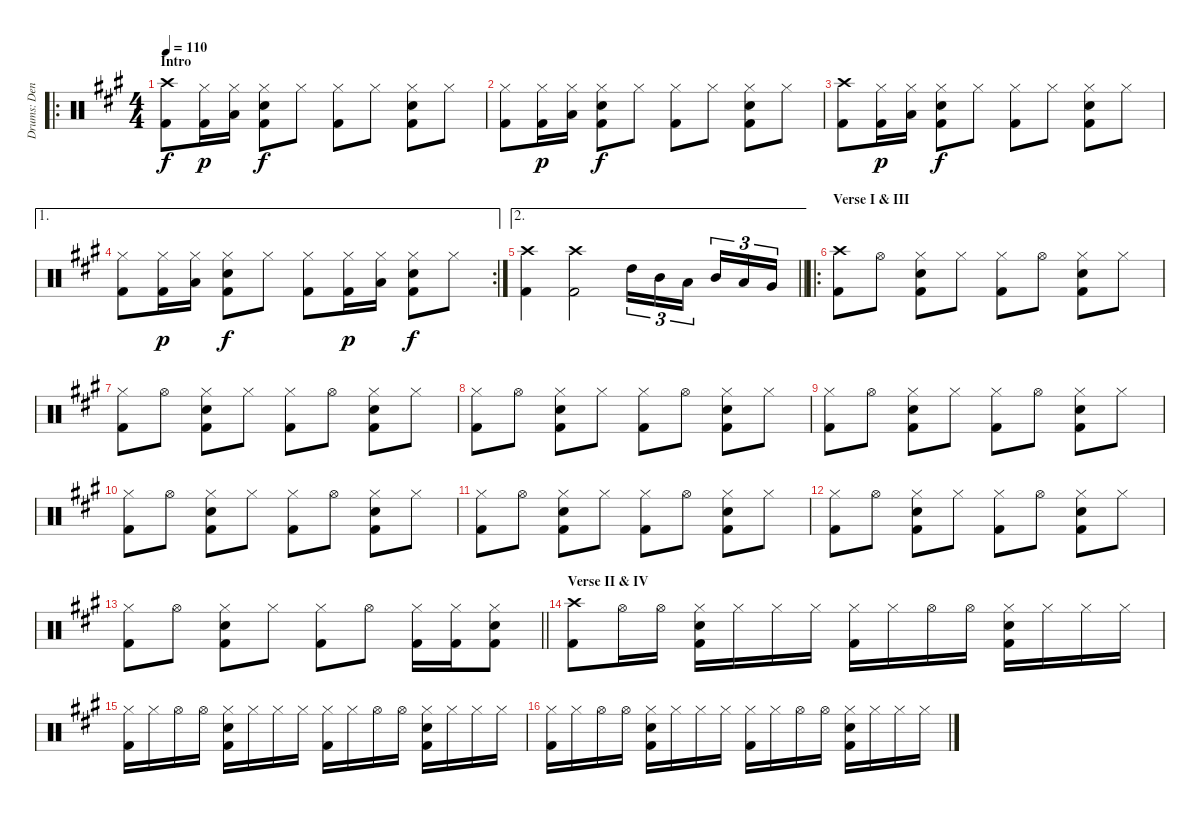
\track ("Drums: Dennis Elliott" "Drums: Den") {instrument percussion}
\staff {score}
\articulation defaults
\ro
\ts (4 4)
\section ("" "Intro")
\tempo 110
\clef neutral
\ks a
("Crash high (hit)" "Kick (hit) 2").8{dy f} ("Hi-Hat (closed)" "Kick (hit) 2").16{dy p} ("Hi-Hat (closed)" "Low Tom (hit)").16 ("Hi-Hat (closed)" "Snare (hit) 2" "Kick (hit) 2").8{dy f} "Hi-Hat (closed)".8 ("Hi-Hat (closed)" "Kick (hit) 2").8 "Hi-Hat (closed)".8 ("Hi-Hat (closed)" "Snare (hit) 2" "Kick (hit) 2").8 "Hi-Hat (closed)".8 |
("Hi-Hat (closed)" "Kick (hit) 2").8 ("Hi-Hat (closed)" "Kick (hit) 2").16{dy p} ("Hi-Hat (closed)" "Low Tom (hit)").16 ("Hi-Hat (closed)" "Snare (hit) 2" "Kick (hit) 2").8{dy f} "Hi-Hat (closed)".8 ("Hi-Hat (closed)" "Kick (hit) 2").8 "Hi-Hat (closed)".8 ("Hi-Hat (closed)" "Snare (hit) 2" "Kick (hit) 2").8 "Hi-Hat (closed)".8 |
("Crash high (hit)" "Kick (hit) 2").8 ("Hi-Hat (closed)" "Kick (hit) 2").16{dy p} ("Hi-Hat (closed)" "Low Tom (hit)").16 ("Hi-Hat (closed)" "Snare (hit) 2" "Kick (hit) 2").8{dy f} "Hi-Hat (closed)".8 ("Hi-Hat (closed)" "Kick (hit) 2").8 "Hi-Hat (closed)".8 ("Hi-Hat (closed)" "Snare (hit) 2" "Kick (hit) 2").8 "Hi-Hat (closed)".8 |
\ae 1
\rc 2
("Hi-Hat (closed)" "Kick (hit) 2").8 ("Hi-Hat (closed)" "Kick (hit) 2").16{dy p} ("Hi-Hat (closed)" "Low Tom (hit)").16 ("Hi-Hat (closed)" "Snare (hit) 2" "Kick (hit) 2").8{dy f} "Hi-Hat (closed)".8 ("Hi-Hat (closed)" "Kick (hit) 2").8 ("Hi-Hat (closed)" "Kick (hit) 2").16{dy p} ("Hi-Hat (closed)" "Low Tom (hit)").16 ("Hi-Hat (closed)" "Snare (hit) 2" "Kick (hit) 2").8{dy f} "Hi-Hat (closed)".8 |
\ae 2
\barLineRight lightlight
("Crash high (hit)" "Kick (hit) 2").4 ("Crash high (hit)" "Kick (hit) 2").2 "High Tom (hit)".16{tu (3 2)} "Mid Tom (hit)".16{tu (3 2)} "Low Tom (hit)".16{tu (3 2) beam splitsecondary} "Mid Tom (hit)".16{tu (3 2)} "Low Tom (hit)".16{tu (3 2)} "Very Low Tom (hit)".16{tu (3 2)} |
\ro
\section ("" "Verse I & III")
("Crash high (hit)" "Kick (hit) 2").8 "Hi-Hat (open)".8 ("Hi-Hat (closed)" "Snare (hit) 2" "Kick (hit) 2").8 "Hi-Hat (closed)".8 ("Hi-Hat (closed)" "Kick (hit) 2").8 "Hi-Hat (open)".8 ("Hi-Hat (closed)" "Snare (hit) 2" "Kick (hit) 2").8 "Hi-Hat (closed)".8 |
("Hi-Hat (closed)" "Kick (hit) 2").8 "Hi-Hat (open)".8 ("Hi-Hat (closed)" "Snare (hit) 2" "Kick (hit) 2").8 "Hi-Hat (closed)".8 ("Hi-Hat (closed)" "Kick (hit) 2").8 "Hi-Hat (open)".8 ("Hi-Hat (closed)" "Snare (hit) 2" "Kick (hit) 2").8 "Hi-Hat (closed)".8 |
("Hi-Hat (closed)" "Kick (hit) 2").8 "Hi-Hat (open)".8 ("Hi-Hat (closed)" "Snare (hit) 2" "Kick (hit) 2").8 "Hi-Hat (closed)".8 ("Hi-Hat (closed)" "Kick (hit) 2").8 "Hi-Hat (open)".8 ("Hi-Hat (closed)" "Snare (hit) 2" "Kick (hit) 2").8 "Hi-Hat (closed)".8 |
("Hi-Hat (closed)" "Kick (hit) 2").8 "Hi-Hat (open)".8 ("Hi-Hat (closed)" "Snare (hit) 2" "Kick (hit) 2").8 "Hi-Hat (closed)".8 ("Hi-Hat (closed)" "Kick (hit) 2").8 "Hi-Hat (open)".8 ("Hi-Hat (closed)" "Snare (hit) 2" "Kick (hit) 2").8 "Hi-Hat (closed)".8 |
("Hi-Hat (closed)" "Kick (hit) 2").8 "Hi-Hat (open)".8 ("Hi-Hat (closed)" "Snare (hit) 2" "Kick (hit) 2").8 "Hi-Hat (closed)".8 ("Hi-Hat (closed)" "Kick (hit) 2").8 "Hi-Hat (open)".8 ("Hi-Hat (closed)" "Snare (hit) 2" "Kick (hit) 2").8 "Hi-Hat (closed)".8 |
("Hi-Hat (closed)" "Kick (hit) 2").8 "Hi-Hat (open)".8 ("Hi-Hat (closed)" "Snare (hit) 2" "Kick (hit) 2").8 "Hi-Hat (closed)".8 ("Hi-Hat (closed)" "Kick (hit) 2").8 "Hi-Hat (open)".8 ("Hi-Hat (closed)" "Snare (hit) 2" "Kick (hit) 2").8 "Hi-Hat (closed)".8 |
("Hi-Hat (closed)" "Kick (hit) 2").8 "Hi-Hat (open)".8 ("Hi-Hat (closed)" "Snare (hit) 2" "Kick (hit) 2").8 "Hi-Hat (closed)".8 ("Hi-Hat (closed)" "Kick (hit) 2").8 "Hi-Hat (open)".8 ("Hi-Hat (closed)" "Snare (hit) 2" "Kick (hit) 2").8 "Hi-Hat (closed)".8 |
\barLineRight lightlight
("Hi-Hat (closed)" "Kick (hit) 2").8 "Hi-Hat (open)".8 ("Hi-Hat (closed)" "Snare (hit) 2" "Kick (hit) 2").8 "Hi-Hat (closed)".8 ("Hi-Hat (closed)" "Kick (hit) 2").8 "Hi-Hat (open)".8 ("Hi-Hat (closed)" "Kick (hit) 2").16 ("Hi-Hat (closed)" "Kick (hit) 2").16 ("Hi-Hat (closed)" "Snare (hit) 2" "Kick (hit) 2").8 |
\section ("" "Verse II & IV")
("Crash high (hit)" "Kick (hit) 2").8 "Hi-Hat (open)".16 "Hi-Hat (open)".16 ("Hi-Hat (closed)" "Snare (hit) 2" "Kick (hit) 2").16 "Hi-Hat (closed)".16 "Hi-Hat (closed)".16 "Hi-Hat (closed)".16 ("Hi-Hat (closed)" "Kick (hit) 2").16 "Hi-Hat (closed)".16 "Hi-Hat (open)".16 "Hi-Hat (open)".16 ("Hi-Hat (closed)" "Snare (hit) 2" "Kick (hit) 2").16 "Hi-Hat (closed)".16 "Hi-Hat (closed)".16 "Hi-Hat (closed)".16 |
("Hi-Hat (closed)" "Kick (hit) 2").16 "Hi-Hat (closed)".16 "Hi-Hat (open)".16 "Hi-Hat (open)".16 ("Hi-Hat (closed)" "Snare (hit) 2" "Kick (hit) 2").16 "Hi-Hat (closed)".16 "Hi-Hat (closed)".16 "Hi-Hat (closed)".16 ("Hi-Hat (closed)" "Kick (hit) 2").16 "Hi-Hat (closed)".16 "Hi-Hat (open)".16 "Hi-Hat (open)".16 ("Hi-Hat (closed)" "Snare (hit) 2" "Kick (hit) 2").16 "Hi-Hat (closed)".16 "Hi-Hat (closed)".16 "Hi-Hat (closed)".16 |
("Hi-Hat (closed)" "Kick (hit) 2").16 "Hi-Hat (closed)".16 "Hi-Hat (open)".16 "Hi-Hat (open)".16 ("Hi-Hat (closed)" "Snare (hit) 2" "Kick (hit) 2").16 "Hi-Hat (closed)".16 "Hi-Hat (closed)".16 "Hi-Hat (closed)".16 ("Hi-Hat (closed)" "Kick (hit) 2").16 "Hi-Hat (closed)".16 "Hi-Hat (open)".16 "Hi-Hat (open)".16 ("Hi-Hat (closed)" "Snare (hit) 2" "Kick (hit) 2").16 "Hi-Hat (closed)".16 "Hi-Hat (closed)".16 "Hi-Hat (closed)".16
